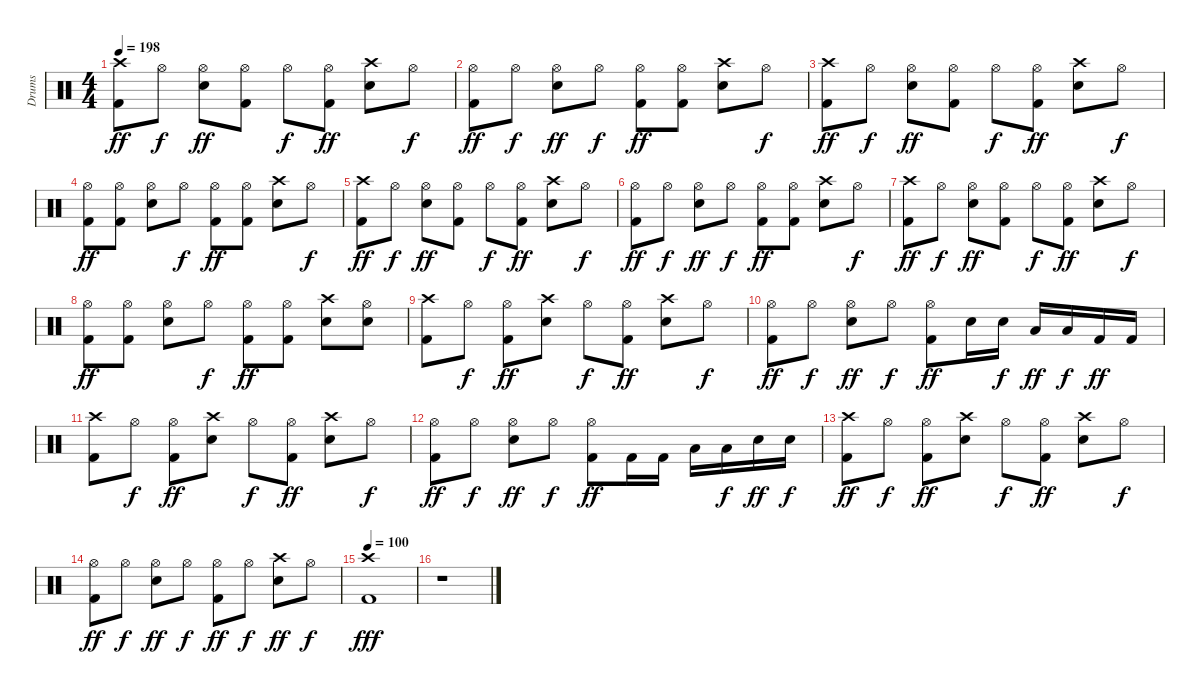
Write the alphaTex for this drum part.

\track ("Drums" "Drums") {instrument percussion}
\staff {score}
\articulation defaults
\ts (4 4)
\tempo 198
\clef neutral
\ks c
("Crash high (hit)" "Kick (hit) 2").8{dy ff} "Hi-Hat (open)".8{dy f} ("Hi-Hat (open)" "Snare (hit) 2").8{dy ff} ("Hi-Hat (open)" "Kick (hit) 2").8 "Hi-Hat (open)".8{dy f} ("Hi-Hat (open)" "Kick (hit) 2").8{dy ff} ("Crash high (hit)" "Snare (hit) 2").8 "Hi-Hat (open)".8{dy f} |
("Hi-Hat (open)" "Kick (hit) 2").8{dy ff} "Hi-Hat (open)".8{dy f} ("Hi-Hat (open)" "Snare (hit) 2").8{dy ff} "Hi-Hat (open)".8{dy f} ("Hi-Hat (open)" "Kick (hit) 2").8{dy ff} ("Hi-Hat (open)" "Kick (hit) 2").8 ("Crash high (hit)" "Snare (hit) 2").8 "Hi-Hat (open)".8{dy f} |
("Crash high (hit)" "Kick (hit) 2").8{dy ff} "Hi-Hat (open)".8{dy f} ("Hi-Hat (open)" "Snare (hit) 2").8{dy ff} ("Hi-Hat (open)" "Kick (hit) 2").8 "Hi-Hat (open)".8{dy f} ("Hi-Hat (open)" "Kick (hit) 2").8{dy ff} ("Crash high (hit)" "Snare (hit) 2").8 "Hi-Hat (open)".8{dy f} |
("Hi-Hat (open)" "Kick (hit) 2").8{dy ff} ("Hi-Hat (open)" "Kick (hit) 2").8 ("Hi-Hat (open)" "Snare (hit) 2").8 "Hi-Hat (open)".8{dy f} ("Hi-Hat (open)" "Kick (hit) 2").8{dy ff} ("Hi-Hat (open)" "Kick (hit) 2").8 ("Crash high (hit)" "Snare (hit) 2").8 "Hi-Hat (open)".8{dy f} |
("Crash high (hit)" "Kick (hit) 2").8{dy ff} "Hi-Hat (open)".8{dy f} ("Hi-Hat (open)" "Snare (hit) 2").8{dy ff} ("Hi-Hat (open)" "Kick (hit) 2").8 "Hi-Hat (open)".8{dy f} ("Hi-Hat (open)" "Kick (hit) 2").8{dy ff} ("Crash high (hit)" "Snare (hit) 2").8 "Hi-Hat (open)".8{dy f} |
("Hi-Hat (open)" "Kick (hit) 2").8{dy ff} "Hi-Hat (open)".8{dy f} ("Hi-Hat (open)" "Snare (hit) 2").8{dy ff} "Hi-Hat (open)".8{dy f} ("Hi-Hat (open)" "Kick (hit) 2").8{dy ff} ("Hi-Hat (open)" "Kick (hit) 2").8 ("Crash high (hit)" "Snare (hit) 2").8 "Hi-Hat (open)".8{dy f} |
("Crash high (hit)" "Kick (hit) 2").8{dy ff} "Hi-Hat (open)".8{dy f} ("Hi-Hat (open)" "Snare (hit) 2").8{dy ff} ("Hi-Hat (open)" "Kick (hit) 2").8 "Hi-Hat (open)".8{dy f} ("Hi-Hat (open)" "Kick (hit) 2").8{dy ff} ("Crash high (hit)" "Snare (hit) 2").8 "Hi-Hat (open)".8{dy f} |
("Hi-Hat (open)" "Kick (hit) 2").8{dy ff} ("Hi-Hat (open)" "Kick (hit) 2").8 ("Hi-Hat (open)" "Snare (hit) 2").8 "Hi-Hat (open)".8{dy f} ("Hi-Hat (open)" "Kick (hit) 2").8{dy ff} ("Hi-Hat (open)" "Kick (hit) 2").8 ("Crash high (hit)" "Snare (hit) 2").8 ("Hi-Hat (open)" "Snare (hit) 2").8 |
("Crash high (hit)" "Kick (hit) 2").8 "Hi-Hat (open)".8{dy f} ("Hi-Hat (open)" "Kick (hit) 2").8{dy ff} ("Crash high (hit)" "Snare (hit) 2").8 "Hi-Hat (open)".8{dy f} ("Hi-Hat (open)" "Kick (hit) 2").8{dy ff} ("Crash high (hit)" "Snare (hit) 2").8 "Hi-Hat (open)".8{dy f} |
("Hi-Hat (open)" "Kick (hit) 2").8{dy ff} "Hi-Hat (open)".8{dy f} ("Hi-Hat (open)" "Snare (hit) 2").8{dy ff} "Hi-Hat (open)".8{dy f} ("Hi-Hat (open)" "Kick (hit) 2").8{dy ff} "Snare (hit) 2".16 "Snare (hit) 2".16{dy f} "Low Tom (hit)".16{dy ff} "Low Tom (hit)".16{dy f} "Kick (hit) 2".16{dy ff} "Kick (hit) 2".16 |
("Crash high (hit)" "Kick (hit) 2").8 "Hi-Hat (open)".8{dy f} ("Hi-Hat (open)" "Kick (hit) 2").8{dy ff} ("Crash high (hit)" "Snare (hit) 2").8 "Hi-Hat (open)".8{dy f} ("Hi-Hat (open)" "Kick (hit) 2").8{dy ff} ("Crash high (hit)" "Snare (hit) 2").8 "Hi-Hat (open)".8{dy f} |
("Hi-Hat (open)" "Kick (hit) 2").8{dy ff} "Hi-Hat (open)".8{dy f} ("Hi-Hat (open)" "Snare (hit) 2").8{dy ff} "Hi-Hat (open)".8{dy f} ("Hi-Hat (open)" "Kick (hit) 2").8{dy ff} "Kick (hit) 2".16 "Kick (hit) 2".16 "Low Tom (hit)".16 "Low Tom (hit)".16{dy f} "Snare (hit) 2".16{dy ff} "Snare (hit) 2".16{dy f} |
("Crash high (hit)" "Kick (hit) 2").8{dy ff} "Hi-Hat (open)".8{dy f} ("Hi-Hat (open)" "Kick (hit) 2").8{dy ff} ("Crash high (hit)" "Snare (hit) 2").8 "Hi-Hat (open)".8{dy f} ("Hi-Hat (open)" "Kick (hit) 2").8{dy ff} ("Crash high (hit)" "Snare (hit) 2").8 "Hi-Hat (open)".8{dy f} |
("Hi-Hat (open)" "Kick (hit) 2").8{dy ff} "Hi-Hat (open)".8{dy f} ("Hi-Hat (open)" "Snare (hit) 2").8{dy ff} "Hi-Hat (open)".8{dy f} ("Hi-Hat (open)" "Kick (hit) 2").8{dy ff} "Hi-Hat (open)".8{dy f} ("Crash high (hit)" "Snare (hit) 2").8{dy ff} "Hi-Hat (open)".8{dy f} |
\tempo 100
("Crash high (hit)" "Kick (hit) 2").1{dy fff} |
r.1
